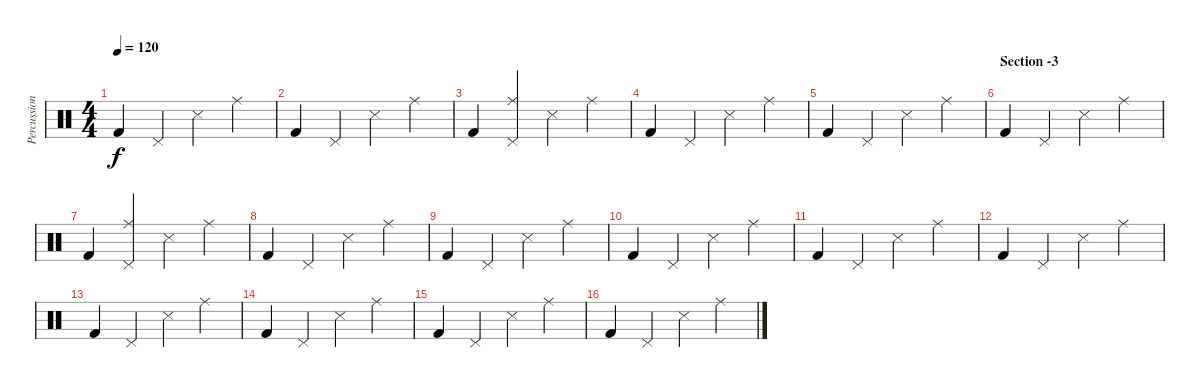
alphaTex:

\track ("Percussion" "Percussion") {instrument percussion}
\staff {score}
\articulation defaults
\ts (4 4)
\tempo 120
\clef neutral
\ks c "Kick (hit) 2".4{dy f} "Pedal Hi-Hat (hit)".4 "Snare (side stick) 3".4 "Ride (middle)".4
|
"Kick (hit) 2".4 "Pedal Hi-Hat (hit)".4 "Snare (side stick) 3".4 "Ride (middle)".4 |
"Kick (hit) 2".4 ("Ride (middle)" "Pedal Hi-Hat (hit)").4 "Snare (side stick) 3".4 "Ride (middle)".4 |
"Kick (hit) 2".4 "Pedal Hi-Hat (hit)".4 "Snare (side stick) 3".4 "Ride (middle)".4 |
"Kick (hit) 2".4 "Pedal Hi-Hat (hit)".4 "Snare (side stick) 3".4 "Ride (middle)".4 |
\section ("" "Section -3")
"Kick (hit) 2".4 "Pedal Hi-Hat (hit)".4 "Snare (side stick) 3".4 "Ride (middle)".4 |
\section ("" "")
"Kick (hit) 2".4 ("Ride (middle)" "Pedal Hi-Hat (hit)").4 "Snare (side stick) 3".4 "Ride (middle)".4 |
"Kick (hit) 2".4 "Pedal Hi-Hat (hit)".4 "Snare (side stick) 3".4 "Ride (middle)".4 |
"Kick (hit) 2".4 "Pedal Hi-Hat (hit)".4 "Snare (side stick) 3".4 "Ride (middle)".4 |
"Kick (hit) 2".4 "Pedal Hi-Hat (hit)".4 "Snare (side stick) 3".4 "Ride (middle)".4 |
"Kick (hit) 2".4 "Pedal Hi-Hat (hit)".4 "Snare (side stick) 3".4 "Ride (middle)".4 |
"Kick (hit) 2".4 "Pedal Hi-Hat (hit)".4 "Snare (side stick) 3".4 "Ride (middle)".4 |
"Kick (hit) 2".4 "Pedal Hi-Hat (hit)".4 "Snare (side stick) 3".4 "Ride (middle)".4 |
"Kick (hit) 2".4 "Pedal Hi-Hat (hit)".4 "Snare (side stick) 3".4 "Ride (middle)".4 |
"Kick (hit) 2".4 "Pedal Hi-Hat (hit)".4 "Snare (side stick) 3".4 "Ride (middle)".4 |
"Kick (hit) 2".4 "Pedal Hi-Hat (hit)".4 "Snare (side stick) 3".4 "Ride (middle)".4
